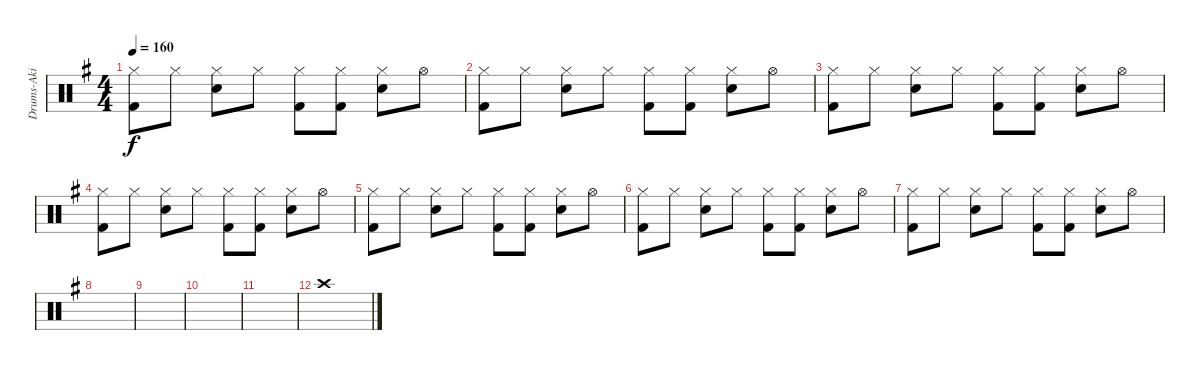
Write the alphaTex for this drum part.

\track ("Drums-Aki" "Drums-Aki") {instrument percussion}
\staff {score}
\articulation defaults
\ts (4 4)
\tempo 160
\clef neutral
\ks g
("Hi-Hat (closed)" "Kick (hit) 2").8{dy f} "Hi-Hat (closed)".8 ("Hi-Hat (closed)" "Electric Snare (hit)").8 "Hi-Hat (closed)".8 ("Hi-Hat (closed)" "Kick (hit) 2").8 ("Hi-Hat (closed)" "Kick (hit) 2").8 ("Hi-Hat (closed)" "Electric Snare (hit)").8 "Hi-Hat (open)".8 |
("Hi-Hat (closed)" "Kick (hit) 2").8 "Hi-Hat (closed)".8 ("Hi-Hat (closed)" "Electric Snare (hit)").8 "Hi-Hat (closed)".8 ("Hi-Hat (closed)" "Kick (hit) 2").8 ("Hi-Hat (closed)" "Kick (hit) 2").8 ("Hi-Hat (closed)" "Electric Snare (hit)").8 "Hi-Hat (open)".8 |
("Hi-Hat (closed)" "Kick (hit) 2").8 "Hi-Hat (closed)".8 ("Hi-Hat (closed)" "Electric Snare (hit)").8 "Hi-Hat (closed)".8 ("Hi-Hat (closed)" "Kick (hit) 2").8 ("Hi-Hat (closed)" "Kick (hit) 2").8 ("Hi-Hat (closed)" "Electric Snare (hit)").8 "Hi-Hat (open)".8 |
("Hi-Hat (closed)" "Kick (hit) 2").8 "Hi-Hat (closed)".8 ("Hi-Hat (closed)" "Electric Snare (hit)").8 "Hi-Hat (closed)".8 ("Hi-Hat (closed)" "Kick (hit) 2").8 ("Hi-Hat (closed)" "Kick (hit) 2").8 ("Hi-Hat (closed)" "Electric Snare (hit)").8 "Hi-Hat (open)".8 |
("Hi-Hat (closed)" "Kick (hit) 2").8 "Hi-Hat (closed)".8 ("Hi-Hat (closed)" "Electric Snare (hit)").8 "Hi-Hat (closed)".8 ("Hi-Hat (closed)" "Kick (hit) 2").8 ("Hi-Hat (closed)" "Kick (hit) 2").8 ("Hi-Hat (closed)" "Electric Snare (hit)").8 "Hi-Hat (open)".8 |
("Hi-Hat (closed)" "Kick (hit) 2").8 "Hi-Hat (closed)".8 ("Hi-Hat (closed)" "Electric Snare (hit)").8 "Hi-Hat (closed)".8 ("Hi-Hat (closed)" "Kick (hit) 2").8 ("Hi-Hat (closed)" "Kick (hit) 2").8 ("Hi-Hat (closed)" "Electric Snare (hit)").8 "Hi-Hat (open)".8 |
("Hi-Hat (closed)" "Kick (hit) 2").8 "Hi-Hat (closed)".8 ("Hi-Hat (closed)" "Electric Snare (hit)").8 "Hi-Hat (closed)".8 ("Hi-Hat (closed)" "Kick (hit) 2").8 ("Hi-Hat (closed)" "Kick (hit) 2").8 ("Hi-Hat (closed)" "Electric Snare (hit)").8 "Hi-Hat (open)".8 |
|
|
|
|
"Crash high (hit)".1
